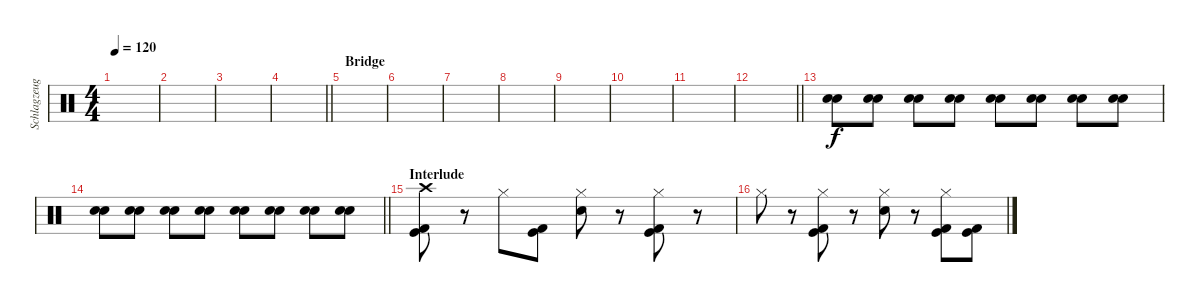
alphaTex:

\track ("Schlagzeug" "Schlagzeug") {instrument percussion}
\staff {score}
\articulation defaults
\ts (4 4)
\tempo 120
\clef neutral
\ks c
|
|
|
\barLineRight lightlight
|
\section ("" "Bridge")
|
|
|
|
|
|
|
\barLineRight lightlight
|
("Electric Snare (hit)" "Electric Snare (hit)").8{volume 16} ("Electric Snare (hit)" "Electric Snare (hit)").8 ("Electric Snare (hit)" "Electric Snare (hit)").8 ("Electric Snare (hit)" "Electric Snare (hit)").8 ("Electric Snare (hit)" "Electric Snare (hit)").8 ("Electric Snare (hit)" "Electric Snare (hit)").8 ("Electric Snare (hit)" "Electric Snare (hit)").8 ("Electric Snare (hit)" "Electric Snare (hit)").8 |
\barLineRight lightlight
("Electric Snare (hit)" "Electric Snare (hit)").8 ("Electric Snare (hit)" "Electric Snare (hit)").8 ("Electric Snare (hit)" "Electric Snare (hit)").8 ("Electric Snare (hit)" "Electric Snare (hit)").8 ("Electric Snare (hit)" "Electric Snare (hit)").8 ("Electric Snare (hit)" "Electric Snare (hit)").8 ("Electric Snare (hit)" "Electric Snare (hit)").8 ("Electric Snare (hit)" "Electric Snare (hit)").8 |
\section ("" "Interlude")
("Kick (hit)" "Kick (hit) 2" "Crash high (hit)").8 r.8 "Hi-Hat (closed)".8 ("Kick (hit)" "Kick (hit) 2").8 ("Hi-Hat (closed)" "Electric Snare (hit)").8 r.8 ("Hi-Hat (closed)" "Kick (hit)" "Kick (hit) 2").8 r.8 |
"Hi-Hat (closed)".8 r.8 ("Hi-Hat (closed)" "Kick (hit)" "Kick (hit) 2").8 r.8 ("Hi-Hat (closed)" "Electric Snare (hit)").8 r.8 ("Hi-Hat (closed)" "Kick (hit)" "Kick (hit) 2").8 ("Kick (hit)" "Kick (hit) 2").8
